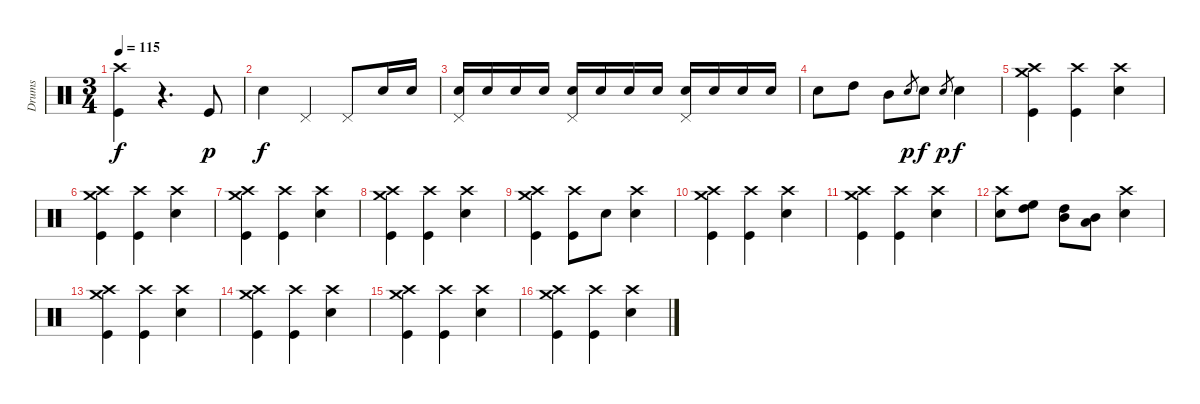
\track ("Drums" "Drums") {instrument percussion}
\staff {score}
\articulation defaults
\ts (3 4)
\tempo 115
\clef neutral
\ks c
("Crash high (hit)" "Kick (hit)").4{dy f} r.4{d} "Kick (hit)".8{dy p} |
"Snare (hit) 2".4{dy f} "Pedal Hi-Hat (hit)".4 "Pedal Hi-Hat (hit)".8 "Snare (hit) 2".16 "Snare (hit) 2".16 |
("Pedal Hi-Hat (hit)" "Snare (hit) 2").16 "Snare (hit) 2".16 "Snare (hit) 2".16 "Snare (hit) 2".16 ("Pedal Hi-Hat (hit)" "Snare (hit) 2").16 "Snare (hit) 2".16 "Snare (hit) 2".16 "Snare (hit) 2".16 ("Pedal Hi-Hat (hit)" "Snare (hit) 2").16 "Snare (hit) 2".16 "Snare (hit) 2".16 "Snare (hit) 2".16 |
"Snare (hit) 2".8 "High Tom (hit)".8 "Mid Tom (hit)".8 "Snare (hit) 2".8{gr dy p} "Snare (hit) 2".8{dy f} "Snare (hit) 2".8{gr dy p} "Snare (hit) 2".4{dy f} |
("Crash high (hit)" "Crash medium (hit)" "Kick (hit)").4 ("Crash high (hit)" "Kick (hit)").4 ("Crash high (hit)" "Snare (hit) 2").4 |
("Crash high (hit)" "Crash medium (hit)" "Kick (hit)").4 ("Crash high (hit)" "Kick (hit)").4 ("Crash high (hit)" "Snare (hit) 2").4 |
("Crash high (hit)" "Crash medium (hit)" "Kick (hit)").4 ("Crash high (hit)" "Kick (hit)").4 ("Crash high (hit)" "Snare (hit) 2").4 |
("Crash high (hit)" "Crash medium (hit)" "Kick (hit)").4 ("Crash high (hit)" "Kick (hit)").4 ("Crash high (hit)" "Snare (hit) 2").4 |
("Crash high (hit)" "Crash medium (hit)" "Kick (hit)").4 ("Crash high (hit)" "Kick (hit)").8 "Snare (hit) 2".8 ("Crash high (hit)" "Snare (hit) 2").4 |
("Crash high (hit)" "Crash medium (hit)" "Kick (hit)").4 ("Crash high (hit)" "Kick (hit)").4 ("Crash high (hit)" "Snare (hit) 2").4 |
("Crash high (hit)" "Crash medium (hit)" "Kick (hit)").4 ("Crash high (hit)" "Kick (hit)").4 ("Crash high (hit)" "Snare (hit) 2").4 |
("Crash high (hit)" "Snare (hit) 2").8 ("High Tom (hit)" "High Floor Tom (hit)").8 ("High Tom (hit)" "Mid Tom (hit)").8 ("Mid Tom (hit)" "Low Tom (hit)").8 ("Crash high (hit)" "Snare (hit) 2").4 |
("Crash high (hit)" "Crash medium (hit)" "Kick (hit)").4 ("Crash high (hit)" "Kick (hit)").4 ("Crash high (hit)" "Snare (hit) 2").4 |
("Crash high (hit)" "Crash medium (hit)" "Kick (hit)").4 ("Crash high (hit)" "Kick (hit)").4 ("Crash high (hit)" "Snare (hit) 2").4 |
("Crash high (hit)" "Crash medium (hit)" "Kick (hit)").4 ("Crash high (hit)" "Kick (hit)").4 ("Crash high (hit)" "Snare (hit) 2").4 |
("Crash high (hit)" "Crash medium (hit)" "Kick (hit)").4 ("Crash high (hit)" "Kick (hit)").4 ("Crash high (hit)" "Snare (hit) 2").4
